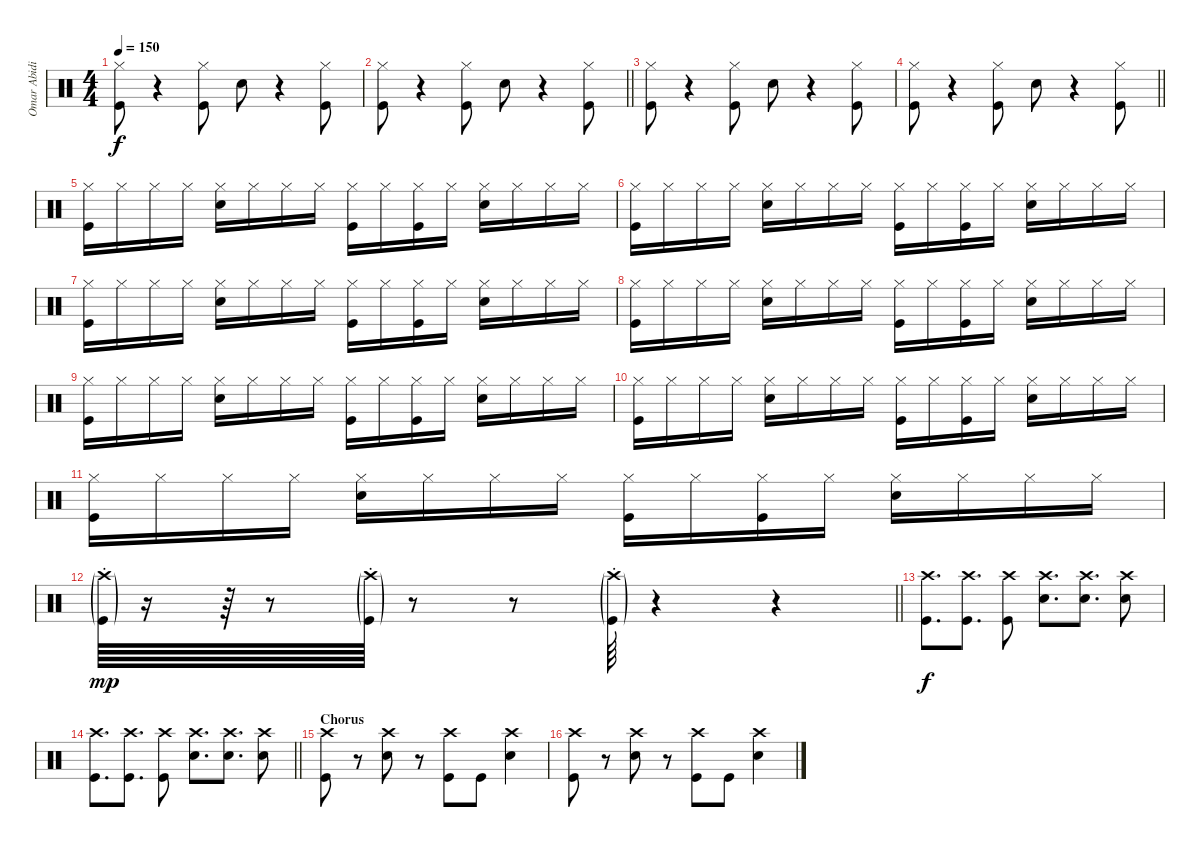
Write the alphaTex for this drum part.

\track ("Omar Abidi" "Omar Abidi") {instrument percussion}
\staff {score}
\articulation defaults
\ts (4 4)
\tempo 150
\clef neutral
\ks c
("Hi-Hat (closed)" "Kick (hit)").8{dy f} r.4 ("Hi-Hat (closed)" "Kick (hit)").8 "Snare (hit) 2".8 r.4 ("Hi-Hat (closed)" "Kick (hit)").8 |
\barLineRight lightlight
("Hi-Hat (closed)" "Kick (hit)").8 r.4 ("Hi-Hat (closed)" "Kick (hit)").8 "Snare (hit) 2".8 r.4 ("Hi-Hat (closed)" "Kick (hit)").8 |
("Hi-Hat (closed)" "Kick (hit)").8 r.4 ("Hi-Hat (closed)" "Kick (hit)").8 "Snare (hit) 2".8 r.4 ("Hi-Hat (closed)" "Kick (hit)").8 |
\barLineRight lightlight
("Hi-Hat (closed)" "Kick (hit)").8 r.4 ("Hi-Hat (closed)" "Kick (hit)").8 "Snare (hit) 2".8 r.4 ("Hi-Hat (closed)" "Kick (hit)").8 |
("Hi-Hat (closed)" "Kick (hit)").16 "Hi-Hat (closed)".16 "Hi-Hat (closed)".16 "Hi-Hat (closed)".16 ("Hi-Hat (closed)" "Snare (hit) 2").16 "Hi-Hat (closed)".16 "Hi-Hat (closed)".16 "Hi-Hat (closed)".16 ("Hi-Hat (closed)" "Kick (hit)").16 "Hi-Hat (closed)".16 ("Hi-Hat (closed)" "Kick (hit)").16 "Hi-Hat (closed)".16 ("Hi-Hat (closed)" "Snare (hit) 2").16 "Hi-Hat (closed)".16 "Hi-Hat (closed)".16 "Hi-Hat (closed)".16 |
("Hi-Hat (closed)" "Kick (hit)").16 "Hi-Hat (closed)".16 "Hi-Hat (closed)".16 "Hi-Hat (closed)".16 ("Hi-Hat (closed)" "Snare (hit) 2").16 "Hi-Hat (closed)".16 "Hi-Hat (closed)".16 "Hi-Hat (closed)".16 ("Hi-Hat (closed)" "Kick (hit)").16 "Hi-Hat (closed)".16 ("Hi-Hat (closed)" "Kick (hit)").16 "Hi-Hat (closed)".16 ("Hi-Hat (closed)" "Snare (hit) 2").16 "Hi-Hat (closed)".16 "Hi-Hat (closed)".16 "Hi-Hat (closed)".16 |
("Hi-Hat (closed)" "Kick (hit)").16 "Hi-Hat (closed)".16 "Hi-Hat (closed)".16 "Hi-Hat (closed)".16 ("Hi-Hat (closed)" "Snare (hit) 2").16 "Hi-Hat (closed)".16 "Hi-Hat (closed)".16 "Hi-Hat (closed)".16 ("Hi-Hat (closed)" "Kick (hit)").16 "Hi-Hat (closed)".16 ("Hi-Hat (closed)" "Kick (hit)").16 "Hi-Hat (closed)".16 ("Hi-Hat (closed)" "Snare (hit) 2").16 "Hi-Hat (closed)".16 "Hi-Hat (closed)".16 "Hi-Hat (closed)".16 |
("Hi-Hat (closed)" "Kick (hit)").16 "Hi-Hat (closed)".16 "Hi-Hat (closed)".16 "Hi-Hat (closed)".16 ("Hi-Hat (closed)" "Snare (hit) 2").16 "Hi-Hat (closed)".16 "Hi-Hat (closed)".16 "Hi-Hat (closed)".16 ("Hi-Hat (closed)" "Kick (hit)").16 "Hi-Hat (closed)".16 ("Hi-Hat (closed)" "Kick (hit)").16 "Hi-Hat (closed)".16 ("Hi-Hat (closed)" "Snare (hit) 2").16 "Hi-Hat (closed)".16 "Hi-Hat (closed)".16 "Hi-Hat (closed)".16 |
("Hi-Hat (closed)" "Kick (hit)").16 "Hi-Hat (closed)".16 "Hi-Hat (closed)".16 "Hi-Hat (closed)".16 ("Hi-Hat (closed)" "Snare (hit) 2").16 "Hi-Hat (closed)".16 "Hi-Hat (closed)".16 "Hi-Hat (closed)".16 ("Hi-Hat (closed)" "Kick (hit)").16 "Hi-Hat (closed)".16 ("Hi-Hat (closed)" "Kick (hit)").16 "Hi-Hat (closed)".16 ("Hi-Hat (closed)" "Snare (hit) 2").16 "Hi-Hat (closed)".16 "Hi-Hat (closed)".16 "Hi-Hat (closed)".16 |
("Hi-Hat (closed)" "Kick (hit)").16 "Hi-Hat (closed)".16 "Hi-Hat (closed)".16 "Hi-Hat (closed)".16 ("Hi-Hat (closed)" "Snare (hit) 2").16 "Hi-Hat (closed)".16 "Hi-Hat (closed)".16 "Hi-Hat (closed)".16 ("Hi-Hat (closed)" "Kick (hit)").16 "Hi-Hat (closed)".16 ("Hi-Hat (closed)" "Kick (hit)").16 "Hi-Hat (closed)".16 ("Hi-Hat (closed)" "Snare (hit) 2").16 "Hi-Hat (closed)".16 "Hi-Hat (closed)".16 "Hi-Hat (closed)".16 |
("Hi-Hat (closed)" "Kick (hit)").16 "Hi-Hat (closed)".16 "Hi-Hat (closed)".16 "Hi-Hat (closed)".16 ("Hi-Hat (closed)" "Snare (hit) 2").16 "Hi-Hat (closed)".16 "Hi-Hat (closed)".16 "Hi-Hat (closed)".16 ("Hi-Hat (closed)" "Kick (hit)").16 "Hi-Hat (closed)".16 ("Hi-Hat (closed)" "Kick (hit)").16 "Hi-Hat (closed)".16 ("Hi-Hat (closed)" "Snare (hit) 2").16 "Hi-Hat (closed)".16 "Hi-Hat (closed)".16 "Hi-Hat (closed)".16 |
\barLineRight lightlight
("Crash high (hit)"{g st} "Kick (hit)"{g st}).64{dy mp} r.16 r.64 r.8 ("Crash high (hit)"{g st} "Kick (hit)"{g st}).64 r.8 r.8 ("Crash high (hit)"{g st} "Kick (hit)"{g st}).64 r.4 r.4 |
("Crash high (hit)" "Kick (hit)").8{d dy f} ("Crash high (hit)" "Kick (hit)").8{d} ("Crash high (hit)" "Kick (hit)").8 ("Crash high (hit)" "Snare (hit) 2").8{d} ("Crash high (hit)" "Snare (hit) 2").8{d} ("Crash high (hit)" "Snare (hit) 2").8 |
\barLineRight lightlight
("Crash high (hit)" "Kick (hit)").8{d} ("Crash high (hit)" "Kick (hit)").8{d} ("Crash high (hit)" "Kick (hit)").8 ("Crash high (hit)" "Snare (hit) 2").8{d} ("Crash high (hit)" "Snare (hit) 2").8{d} ("Crash high (hit)" "Snare (hit) 2").8 |
\section ("" "Chorus")
("Crash high (hit)" "Kick (hit)").8 r.8 ("Crash high (hit)" "Snare (hit) 2").8 r.8 ("Crash high (hit)" "Kick (hit)").8 "Kick (hit)".8 ("Crash high (hit)" "Snare (hit) 2").4 |
("Crash high (hit)" "Kick (hit)").8 r.8 ("Crash high (hit)" "Snare (hit) 2").8 r.8 ("Crash high (hit)" "Kick (hit)").8 "Kick (hit)".8 ("Crash high (hit)" "Snare (hit) 2").4
